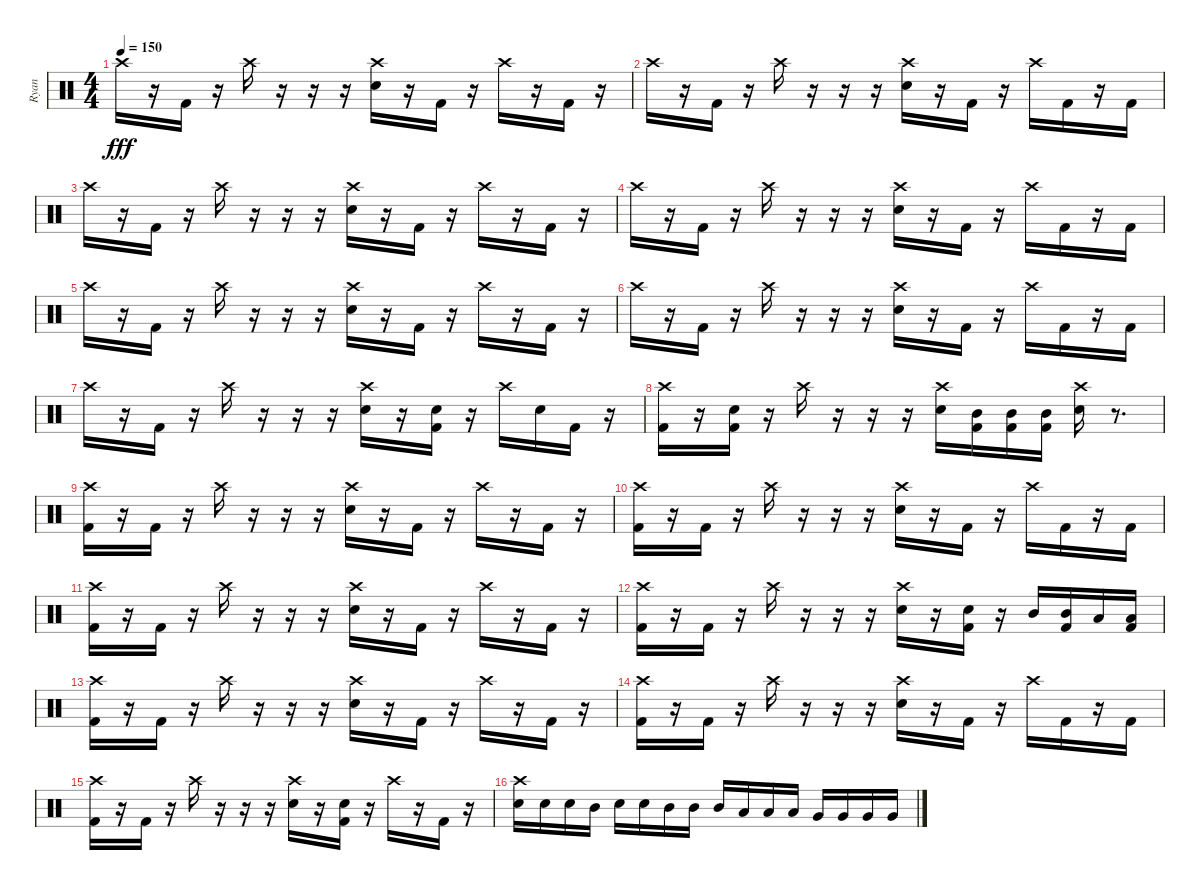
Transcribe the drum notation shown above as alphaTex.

\track ("Ryan" "Ryan") {instrument percussion}
\staff {score}
\articulation defaults
\ts (4 4)
\tempo 150
\clef neutral
\ks c "Crash high (hit)".16{dy fff volume 16}
r.16 "Kick (hit) 2".16 r.16 "Crash high (hit)".16 r.16 r.16 r.16 ("Crash high (hit)" "Electric Snare (hit)").16 r.16 "Kick (hit) 2".16 r.16 "Crash high (hit)".16 r.16 "Kick (hit) 2".16 r.16 |
"Crash high (hit)".16 r.16 "Kick (hit) 2".16 r.16 "Crash high (hit)".16 r.16 r.16 r.16 ("Crash high (hit)" "Electric Snare (hit)").16 r.16 "Kick (hit) 2".16 r.16 "Crash high (hit)".16 "Kick (hit) 2".16 r.16 "Kick (hit) 2".16 |
"Crash high (hit)".16 r.16 "Kick (hit) 2".16 r.16 "Crash high (hit)".16 r.16 r.16 r.16 ("Crash high (hit)" "Electric Snare (hit)").16 r.16 "Kick (hit) 2".16 r.16 "Crash high (hit)".16 r.16 "Kick (hit) 2".16 r.16 |
"Crash high (hit)".16 r.16 "Kick (hit) 2".16 r.16 "Crash high (hit)".16 r.16 r.16 r.16 ("Crash high (hit)" "Electric Snare (hit)").16 r.16 "Kick (hit) 2".16 r.16 "Crash high (hit)".16 "Kick (hit) 2".16 r.16 "Kick (hit) 2".16 |
"Crash high (hit)".16 r.16 "Kick (hit) 2".16 r.16 "Crash high (hit)".16 r.16 r.16 r.16 ("Crash high (hit)" "Electric Snare (hit)").16 r.16 "Kick (hit) 2".16 r.16 "Crash high (hit)".16 r.16 "Kick (hit) 2".16 r.16 |
"Crash high (hit)".16 r.16 "Kick (hit) 2".16 r.16 "Crash high (hit)".16 r.16 r.16 r.16 ("Crash high (hit)" "Electric Snare (hit)").16 r.16 "Kick (hit) 2".16 r.16 "Crash high (hit)".16 "Kick (hit) 2".16 r.16 "Kick (hit) 2".16 |
"Crash high (hit)".16 r.16 "Kick (hit) 2".16 r.16 "Crash high (hit)".16 r.16 r.16 r.16 ("Crash high (hit)" "Electric Snare (hit)").16 r.16 ("Electric Snare (hit)" "Kick (hit) 2").16 r.16 "Crash high (hit)".16 "Electric Snare (hit)".16 "Kick (hit) 2".16 r.16 |
("Crash high (hit)" "Kick (hit) 2").16 r.16 ("Electric Snare (hit)" "Kick (hit) 2").16 r.16 "Crash high (hit)".16 r.16 r.16 r.16 ("Crash high (hit)" "Electric Snare (hit)").16 ("Mid Tom (hit)" "Kick (hit) 2").16 ("Mid Tom (hit)" "Kick (hit) 2").16 ("Mid Tom (hit)" "Kick (hit) 2").16 ("Crash high (hit)" "Electric Snare (hit)").16 r.8{d} |
("Crash high (hit)" "Kick (hit) 2").16 r.16 "Kick (hit) 2".16 r.16 "Crash high (hit)".16 r.16 r.16 r.16 ("Crash high (hit)" "Electric Snare (hit)").16 r.16 "Kick (hit) 2".16 r.16 "Crash high (hit)".16 r.16 "Kick (hit) 2".16 r.16 |
("Crash high (hit)" "Kick (hit) 2").16 r.16 "Kick (hit) 2".16 r.16 "Crash high (hit)".16 r.16 r.16 r.16 ("Crash high (hit)" "Electric Snare (hit)").16 r.16 "Kick (hit) 2".16 r.16 "Crash high (hit)".16 "Kick (hit) 2".16 r.16 "Kick (hit) 2".16 |
("Crash high (hit)" "Kick (hit) 2").16 r.16 "Kick (hit) 2".16 r.16 "Crash high (hit)".16 r.16 r.16 r.16 ("Crash high (hit)" "Electric Snare (hit)").16 r.16 "Kick (hit) 2".16 r.16 "Crash high (hit)".16 r.16 "Kick (hit) 2".16 r.16 |
("Crash high (hit)" "Kick (hit) 2").16 r.16 "Kick (hit) 2".16 r.16 "Crash high (hit)".16 r.16 r.16 r.16 ("Crash high (hit)" "Electric Snare (hit)").16 r.16 ("Electric Snare (hit)" "Kick (hit) 2").16 r.16 "Mid Tom (hit)".16 ("Mid Tom (hit)" "Kick (hit) 2").16 "Low Tom (hit)".16 ("Low Tom (hit)" "Kick (hit) 2").16 |
("Crash high (hit)" "Kick (hit) 2").16 r.16 "Kick (hit) 2".16 r.16 "Crash high (hit)".16 r.16 r.16 r.16 ("Crash high (hit)" "Electric Snare (hit)").16 r.16 "Kick (hit) 2".16 r.16 "Crash high (hit)".16 r.16 "Kick (hit) 2".16 r.16 |
("Crash high (hit)" "Kick (hit) 2").16 r.16 "Kick (hit) 2".16 r.16 "Crash high (hit)".16 r.16 r.16 r.16 ("Crash high (hit)" "Electric Snare (hit)").16 r.16 "Kick (hit) 2".16 r.16 "Crash high (hit)".16 "Kick (hit) 2".16 r.16 "Kick (hit) 2".16 |
("Crash high (hit)" "Kick (hit) 2").16 r.16 "Kick (hit) 2".16 r.16 "Crash high (hit)".16 r.16 r.16 r.16 ("Crash high (hit)" "Electric Snare (hit)").16 r.16 ("Electric Snare (hit)" "Kick (hit) 2").16 r.16 "Crash high (hit)".16 r.16 "Kick (hit) 2".16 r.16 |
("Crash high (hit)" "Electric Snare (hit)").16 "Electric Snare (hit)".16 "Electric Snare (hit)".16 "Mid Tom (hit)".16 "Electric Snare (hit)".16 "Electric Snare (hit)".16 "Mid Tom (hit)".16 "Mid Tom (hit)".16 "Mid Tom (hit)".16 "Low Tom (hit)".16 "Low Tom (hit)".16 "Low Tom (hit)".16 "Very Low Tom (hit)".16 "Very Low Tom (hit)".16 "Very Low Tom (hit)".16 "Very Low Tom (hit)".16
